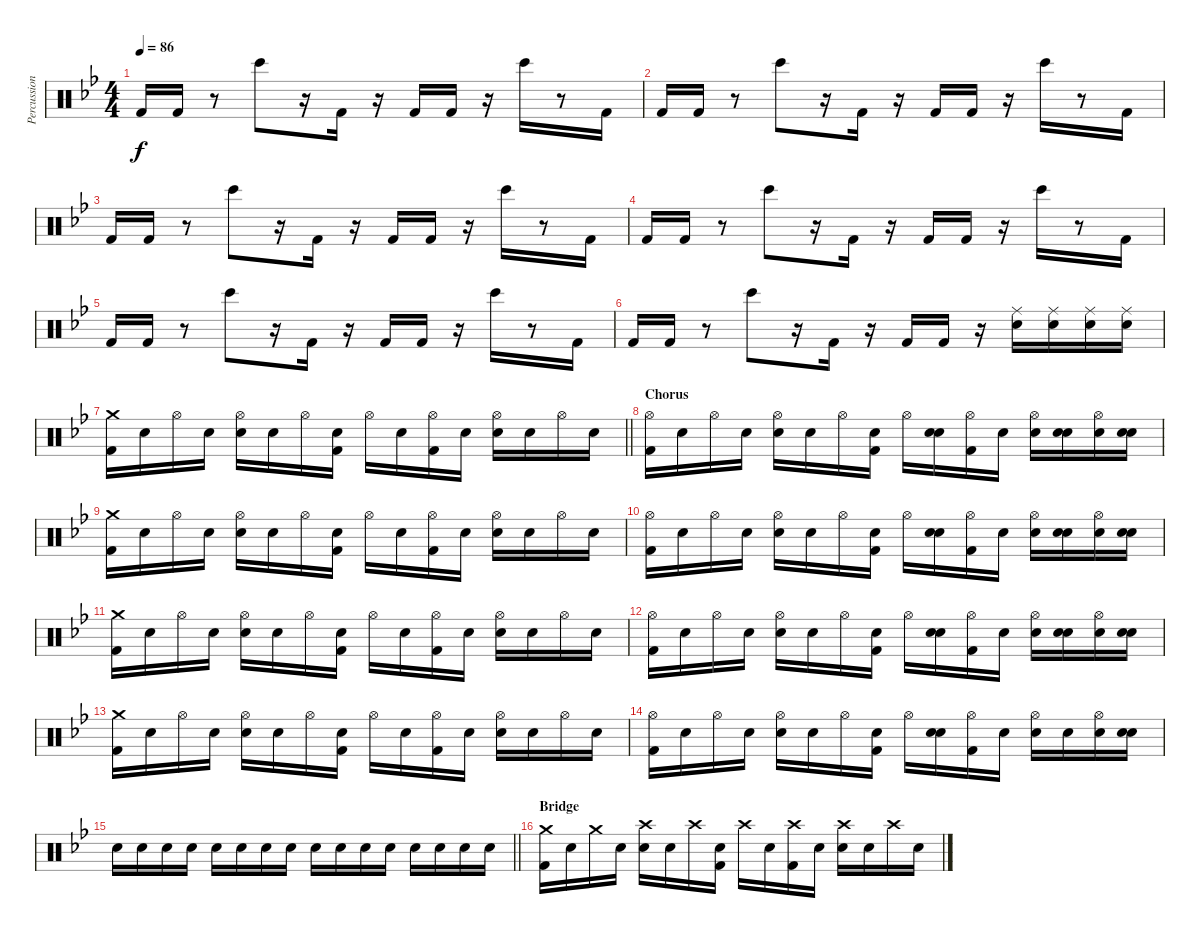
\track ("Percussion" "Percussion") {instrument percussion}
\staff {score}
\articulation defaults
\ts (4 4)
\tempo 86
\clef neutral
\ks gminor "Kick (hit) 2".16{dy f} "Kick (hit) 2".16
r.8 "Bongo High (hit)".8 r.16 "Kick (hit) 2".16 r.16 "Kick (hit) 2".16 "Kick (hit) 2".16 r.16 "Bongo High (hit)".16 r.8 "Kick (hit) 2".16 |
"Kick (hit) 2".16 "Kick (hit) 2".16 r.8 "Bongo High (hit)".8 r.16 "Kick (hit) 2".16 r.16 "Kick (hit) 2".16 "Kick (hit) 2".16 r.16 "Bongo High (hit)".16 r.8 "Kick (hit) 2".16 |
"Kick (hit) 2".16 "Kick (hit) 2".16 r.8 "Bongo High (hit)".8 r.16 "Kick (hit) 2".16 r.16 "Kick (hit) 2".16 "Kick (hit) 2".16 r.16 "Bongo High (hit)".16 r.8 "Kick (hit) 2".16 |
"Kick (hit) 2".16 "Kick (hit) 2".16 r.8 "Bongo High (hit)".8 r.16 "Kick (hit) 2".16 r.16 "Kick (hit) 2".16 "Kick (hit) 2".16 r.16 "Bongo High (hit)".16 r.8 "Kick (hit) 2".16 |
"Kick (hit) 2".16 "Kick (hit) 2".16 r.8 "Bongo High (hit)".8 r.16 "Kick (hit) 2".16 r.16 "Kick (hit) 2".16 "Kick (hit) 2".16 r.16 "Bongo High (hit)".16 r.8 "Kick (hit) 2".16 |
"Kick (hit) 2".16 "Kick (hit) 2".16 r.8 "Bongo High (hit)".8 r.16 "Kick (hit) 2".16 r.16 "Kick (hit) 2".16 "Kick (hit) 2".16 r.16 ("Ride (middle)" "Snare (hit) 2").16{volume 13} ("Ride (middle)" "Snare (hit) 2").16 ("Ride (middle)" "Snare (hit) 2").16 ("Ride (middle)" "Snare (hit) 2").16 |
\barLineRight lightlight
("Crash medium (hit)" "Kick (hit) 2").16 "Snare (hit)".16 "Hi-Hat (open)".16 "Snare (hit)".16 ("Hi-Hat (open)" "Electric Snare (hit)").16 "Snare (hit)".16 "Hi-Hat (open)".16 ("Snare (hit)" "Kick (hit) 2").16 "Hi-Hat (open)".16 "Snare (hit)".16 ("Hi-Hat (open)" "Kick (hit) 2").16 "Snare (hit)".16 ("Hi-Hat (open)" "Electric Snare (hit)").16 "Snare (hit)".16 "Hi-Hat (open)".16 "Snare (hit)".16 |
\section ("" "Chorus")
("Hi-Hat (open)" "Kick (hit) 2").16 "Snare (hit)".16 "Hi-Hat (open)".16 "Snare (hit)".16 ("Hi-Hat (open)" "Electric Snare (hit)").16 "Snare (hit)".16 "Hi-Hat (open)".16 ("Snare (hit)" "Kick (hit) 2").16 "Hi-Hat (open)".16 ("Snare (hit)" "Electric Snare (hit)").16 ("Hi-Hat (open)" "Kick (hit) 2").16 "Snare (hit)".16 ("Hi-Hat (open)" "Electric Snare (hit)").16 ("Snare (hit)" "Electric Snare (hit)").16 ("Hi-Hat (open)" "Electric Snare (hit)").16 ("Snare (hit)" "Electric Snare (hit)").16 |
("Crash medium (hit)" "Kick (hit) 2").16 "Snare (hit)".16 "Hi-Hat (open)".16 "Snare (hit)".16 ("Hi-Hat (open)" "Electric Snare (hit)").16 "Snare (hit)".16 "Hi-Hat (open)".16 ("Snare (hit)" "Kick (hit) 2").16 "Hi-Hat (open)".16 "Snare (hit)".16 ("Hi-Hat (open)" "Kick (hit) 2").16 "Snare (hit)".16 ("Hi-Hat (open)" "Electric Snare (hit)").16 "Snare (hit)".16 "Hi-Hat (open)".16 "Snare (hit)".16 |
("Hi-Hat (open)" "Kick (hit) 2").16 "Snare (hit)".16 "Hi-Hat (open)".16 "Snare (hit)".16 ("Hi-Hat (open)" "Electric Snare (hit)").16 "Snare (hit)".16 "Hi-Hat (open)".16 ("Snare (hit)" "Kick (hit) 2").16 "Hi-Hat (open)".16 ("Snare (hit)" "Electric Snare (hit)").16 ("Hi-Hat (open)" "Kick (hit) 2").16 "Snare (hit)".16 ("Hi-Hat (open)" "Electric Snare (hit)").16 ("Snare (hit)" "Electric Snare (hit)").16 ("Hi-Hat (open)" "Electric Snare (hit)").16 ("Snare (hit)" "Electric Snare (hit)").16 |
("Crash medium (hit)" "Kick (hit) 2").16 "Snare (hit)".16 "Hi-Hat (open)".16 "Snare (hit)".16 ("Hi-Hat (open)" "Electric Snare (hit)").16 "Snare (hit)".16 "Hi-Hat (open)".16 ("Snare (hit)" "Kick (hit) 2").16 "Hi-Hat (open)".16 "Snare (hit)".16 ("Hi-Hat (open)" "Kick (hit) 2").16 "Snare (hit)".16 ("Hi-Hat (open)" "Electric Snare (hit)").16 "Snare (hit)".16 "Hi-Hat (open)".16 "Snare (hit)".16 |
("Hi-Hat (open)" "Kick (hit) 2").16 "Snare (hit)".16 "Hi-Hat (open)".16 "Snare (hit)".16 ("Hi-Hat (open)" "Electric Snare (hit)").16 "Snare (hit)".16 "Hi-Hat (open)".16 ("Snare (hit)" "Kick (hit) 2").16 "Hi-Hat (open)".16 ("Snare (hit)" "Electric Snare (hit)").16 ("Hi-Hat (open)" "Kick (hit) 2").16 "Snare (hit)".16 ("Hi-Hat (open)" "Electric Snare (hit)").16 ("Snare (hit)" "Electric Snare (hit)").16 ("Hi-Hat (open)" "Electric Snare (hit)").16 ("Snare (hit)" "Electric Snare (hit)").16 |
("Crash medium (hit)" "Kick (hit) 2").16 "Snare (hit)".16 "Hi-Hat (open)".16 "Snare (hit)".16 ("Hi-Hat (open)" "Electric Snare (hit)").16 "Snare (hit)".16 "Hi-Hat (open)".16 ("Snare (hit)" "Kick (hit) 2").16 "Hi-Hat (open)".16 "Snare (hit)".16 ("Hi-Hat (open)" "Kick (hit) 2").16 "Snare (hit)".16 ("Hi-Hat (open)" "Electric Snare (hit)").16 "Snare (hit)".16 "Hi-Hat (open)".16 "Snare (hit)".16 |
("Hi-Hat (open)" "Kick (hit) 2").16 "Snare (hit)".16 "Hi-Hat (open)".16 "Snare (hit)".16 ("Hi-Hat (open)" "Electric Snare (hit)").16 "Snare (hit)".16 "Hi-Hat (open)".16 ("Snare (hit)" "Kick (hit) 2").16 "Hi-Hat (open)".16 ("Snare (hit)" "Electric Snare (hit)").16 ("Hi-Hat (open)" "Kick (hit) 2").16 "Snare (hit)".16 ("Hi-Hat (open)" "Electric Snare (hit)").16 "Snare (hit)".16 ("Hi-Hat (open)" "Electric Snare (hit)").16 ("Snare (hit)" "Electric Snare (hit)").16{volume 9} |
\barLineRight lightlight "Snare (hit) 2".16{volume 16} "Snare (hit) 2".16 "Snare (hit) 2".16 "Snare (hit) 2".16 "Snare (hit) 2".16 "Snare (hit) 2".16 "Snare (hit) 2".16 "Snare (hit) 2".16 "Snare (hit) 2".16 "Snare (hit) 2".16 "Snare (hit) 2".16 "Snare (hit) 2".16 "Snare (hit) 2".16 "Snare (hit) 2".16 "Snare (hit) 2".16 "Snare (hit) 2".16
|
\section ("" "Bridge")
("Crash medium (hit)" "Kick (hit) 2").16{volume 13} "Snare (hit)".16 "Crash medium (hit)".16 "Snare (hit)".16 ("Crash high (hit)" "Electric Snare (hit)").16 "Snare (hit)".16 "Crash high (hit)".16 ("Snare (hit)" "Kick (hit) 2").16 "Crash high (hit)".16 "Snare (hit)".16 ("Crash high (hit)" "Kick (hit) 2").16 "Snare (hit)".16 ("Crash high (hit)" "Electric Snare (hit)").16 "Snare (hit)".16 "Crash high (hit)".16 "Snare (hit)".16
